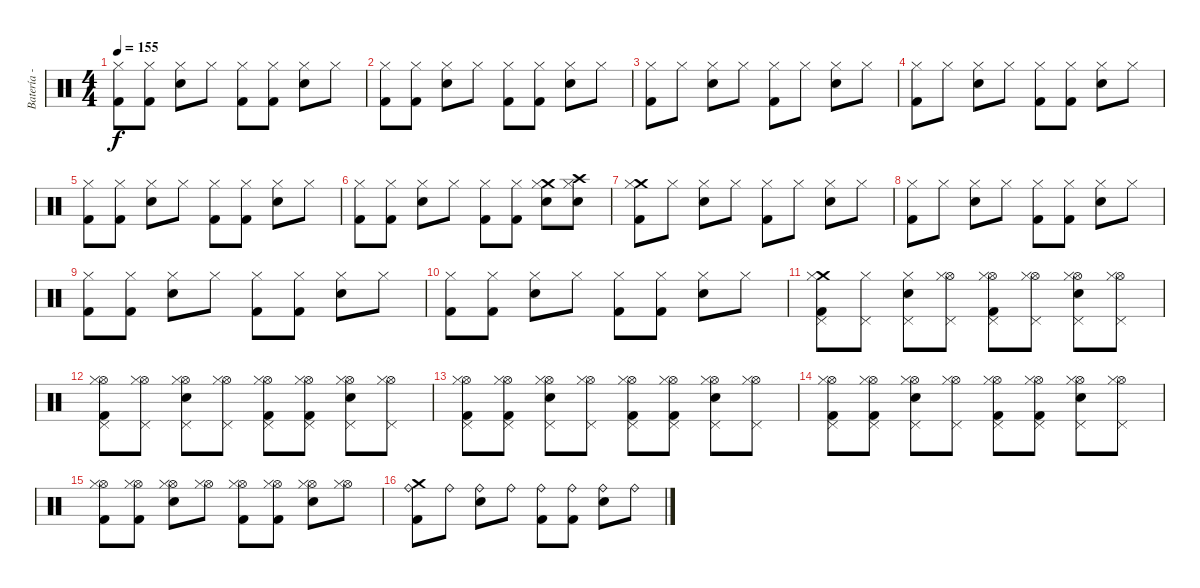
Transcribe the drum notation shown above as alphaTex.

\track ("Batería - Edu" "Batería - ") {instrument percussion}
\staff {score}
\articulation defaults
\ts (4 4)
\tempo 155
\clef neutral
\ks c
("Kick (hit) 2" "Hi-Hat (closed)").8{dy f} ("Kick (hit) 2" "Hi-Hat (closed)").8 ("Electric Snare (hit)" "Hi-Hat (closed)").8 "Hi-Hat (closed)".8 ("Kick (hit) 2" "Hi-Hat (closed)").8 ("Kick (hit) 2" "Hi-Hat (closed)").8 ("Electric Snare (hit)" "Hi-Hat (closed)").8 "Hi-Hat (closed)".8 |
("Kick (hit) 2" "Hi-Hat (closed)").8 ("Kick (hit) 2" "Hi-Hat (closed)").8 ("Electric Snare (hit)" "Hi-Hat (closed)").8 "Hi-Hat (closed)".8 ("Kick (hit) 2" "Hi-Hat (closed)").8 ("Kick (hit) 2" "Hi-Hat (closed)").8 ("Electric Snare (hit)" "Hi-Hat (closed)").8 "Hi-Hat (closed)".8 |
("Kick (hit) 2" "Hi-Hat (closed)").8 "Hi-Hat (closed)".8 ("Electric Snare (hit)" "Hi-Hat (closed)").8 "Hi-Hat (closed)".8 ("Kick (hit) 2" "Hi-Hat (closed)").8 "Hi-Hat (closed)".8 ("Electric Snare (hit)" "Hi-Hat (closed)").8 "Hi-Hat (closed)".8 |
("Kick (hit) 2" "Hi-Hat (closed)").8 "Hi-Hat (closed)".8 ("Electric Snare (hit)" "Hi-Hat (closed)").8 "Hi-Hat (closed)".8 ("Kick (hit) 2" "Hi-Hat (closed)").8 ("Kick (hit) 2" "Hi-Hat (closed)").8 ("Electric Snare (hit)" "Hi-Hat (closed)").8 "Hi-Hat (closed)".8 |
("Kick (hit) 2" "Hi-Hat (closed)").8 ("Kick (hit) 2" "Hi-Hat (closed)").8 ("Electric Snare (hit)" "Hi-Hat (closed)").8 "Hi-Hat (closed)".8 ("Kick (hit) 2" "Hi-Hat (closed)").8 ("Kick (hit) 2" "Hi-Hat (closed)").8 ("Electric Snare (hit)" "Hi-Hat (closed)").8 "Hi-Hat (closed)".8 |
("Kick (hit) 2" "Hi-Hat (closed)").8 ("Kick (hit) 2" "Hi-Hat (closed)").8 ("Electric Snare (hit)" "Hi-Hat (closed)").8 "Hi-Hat (closed)".8 ("Kick (hit) 2" "Hi-Hat (closed)").8 ("Kick (hit) 2" "Hi-Hat (closed)").8 ("Crash medium (hit)" "Electric Snare (hit)" "Hi-Hat (closed)").8 ("Crash high (hit)" "Electric Snare (hit)" "Hi-Hat (closed)").8 |
("Crash medium (hit)" "Kick (hit) 2" "Hi-Hat (closed)").8 "Hi-Hat (closed)".8 ("Electric Snare (hit)" "Hi-Hat (closed)").8 "Hi-Hat (closed)".8 ("Kick (hit) 2" "Hi-Hat (closed)").8 "Hi-Hat (closed)".8 ("Electric Snare (hit)" "Hi-Hat (closed)").8 "Hi-Hat (closed)".8 |
("Kick (hit) 2" "Hi-Hat (closed)").8 "Hi-Hat (closed)".8 ("Electric Snare (hit)" "Hi-Hat (closed)").8 "Hi-Hat (closed)".8 ("Kick (hit) 2" "Hi-Hat (closed)").8 ("Kick (hit) 2" "Hi-Hat (closed)").8 ("Electric Snare (hit)" "Hi-Hat (closed)").8 "Hi-Hat (closed)".8 |
("Kick (hit) 2" "Hi-Hat (closed)").8 ("Kick (hit) 2" "Hi-Hat (closed)").8 ("Electric Snare (hit)" "Hi-Hat (closed)").8 "Hi-Hat (closed)".8 ("Kick (hit) 2" "Hi-Hat (closed)").8 ("Kick (hit) 2" "Hi-Hat (closed)").8 ("Electric Snare (hit)" "Hi-Hat (closed)").8 "Hi-Hat (closed)".8 |
("Kick (hit) 2" "Hi-Hat (closed)").8 ("Kick (hit) 2" "Hi-Hat (closed)").8 ("Electric Snare (hit)" "Hi-Hat (closed)").8 "Hi-Hat (closed)".8 ("Kick (hit) 2" "Hi-Hat (closed)").8 ("Kick (hit) 2" "Hi-Hat (closed)").8 ("Electric Snare (hit)" "Hi-Hat (closed)").8 "Hi-Hat (closed)".8 |
("Pedal Hi-Hat (hit)" "Crash medium (hit)" "Kick (hit) 2" "Hi-Hat (closed)").8 ("Pedal Hi-Hat (hit)" "Hi-Hat (closed)").8 ("Pedal Hi-Hat (hit)" "Electric Snare (hit)" "Hi-Hat (closed)").8 ("Hi-Hat (open)" "Pedal Hi-Hat (hit)" "Hi-Hat (closed)").8 ("Hi-Hat (open)" "Pedal Hi-Hat (hit)" "Kick (hit) 2" "Hi-Hat (closed)").8 ("Hi-Hat (open)" "Pedal Hi-Hat (hit)" "Hi-Hat (closed)").8 ("Hi-Hat (open)" "Pedal Hi-Hat (hit)" "Electric Snare (hit)" "Hi-Hat (closed)").8 ("Hi-Hat (open)" "Pedal Hi-Hat (hit)" "Hi-Hat (closed)").8 |
("Hi-Hat (open)" "Pedal Hi-Hat (hit)" "Kick (hit) 2" "Hi-Hat (closed)").8 ("Hi-Hat (open)" "Pedal Hi-Hat (hit)" "Hi-Hat (closed)").8 ("Hi-Hat (open)" "Pedal Hi-Hat (hit)" "Electric Snare (hit)" "Hi-Hat (closed)").8 ("Hi-Hat (open)" "Pedal Hi-Hat (hit)" "Hi-Hat (closed)").8 ("Hi-Hat (open)" "Pedal Hi-Hat (hit)" "Kick (hit) 2" "Hi-Hat (closed)").8 ("Hi-Hat (open)" "Pedal Hi-Hat (hit)" "Kick (hit) 2" "Hi-Hat (closed)").8 ("Hi-Hat (open)" "Pedal Hi-Hat (hit)" "Electric Snare (hit)" "Hi-Hat (closed)").8 ("Hi-Hat (open)" "Pedal Hi-Hat (hit)" "Hi-Hat (closed)").8 |
("Hi-Hat (open)" "Pedal Hi-Hat (hit)" "Kick (hit) 2" "Hi-Hat (closed)").8 ("Hi-Hat (open)" "Pedal Hi-Hat (hit)" "Kick (hit) 2" "Hi-Hat (closed)").8 ("Hi-Hat (open)" "Pedal Hi-Hat (hit)" "Electric Snare (hit)" "Hi-Hat (closed)").8 ("Hi-Hat (open)" "Pedal Hi-Hat (hit)" "Hi-Hat (closed)").8 ("Hi-Hat (open)" "Pedal Hi-Hat (hit)" "Kick (hit) 2" "Hi-Hat (closed)").8 ("Hi-Hat (open)" "Pedal Hi-Hat (hit)" "Kick (hit) 2" "Hi-Hat (closed)").8 ("Hi-Hat (open)" "Pedal Hi-Hat (hit)" "Electric Snare (hit)" "Hi-Hat (closed)").8 ("Hi-Hat (open)" "Pedal Hi-Hat (hit)" "Hi-Hat (closed)").8 |
("Hi-Hat (open)" "Pedal Hi-Hat (hit)" "Kick (hit) 2" "Hi-Hat (closed)").8 ("Hi-Hat (open)" "Pedal Hi-Hat (hit)" "Kick (hit) 2" "Hi-Hat (closed)").8 ("Hi-Hat (open)" "Pedal Hi-Hat (hit)" "Electric Snare (hit)" "Hi-Hat (closed)").8 ("Hi-Hat (open)" "Pedal Hi-Hat (hit)" "Hi-Hat (closed)").8 ("Hi-Hat (open)" "Pedal Hi-Hat (hit)" "Kick (hit) 2" "Hi-Hat (closed)").8 ("Hi-Hat (open)" "Pedal Hi-Hat (hit)" "Kick (hit) 2" "Hi-Hat (closed)").8 ("Hi-Hat (open)" "Pedal Hi-Hat (hit)" "Electric Snare (hit)" "Hi-Hat (closed)").8 ("Hi-Hat (open)" "Pedal Hi-Hat (hit)" "Hi-Hat (closed)").8 |
("Hi-Hat (open)" "Hi-Hat (closed)" "Kick (hit) 2").8 ("Hi-Hat (open)" "Hi-Hat (closed)" "Kick (hit) 2").8 ("Hi-Hat (open)" "Hi-Hat (closed)" "Electric Snare (hit)").8 ("Hi-Hat (open)" "Hi-Hat (closed)").8 ("Hi-Hat (open)" "Hi-Hat (closed)" "Kick (hit) 2").8 ("Hi-Hat (open)" "Hi-Hat (closed)" "Kick (hit) 2").8 ("Hi-Hat (open)" "Hi-Hat (closed)" "Electric Snare (hit)").8 ("Hi-Hat (open)" "Hi-Hat (closed)").8 |
("Ride (bell)" "Crash medium (hit)" "Kick (hit) 2").8 "Ride (bell)".8 ("Ride (bell)" "Electric Snare (hit)").8 "Ride (bell)".8 ("Ride (bell)" "Kick (hit) 2").8 ("Ride (bell)" "Kick (hit) 2").8 ("Ride (bell)" "Electric Snare (hit)").8 "Ride (bell)".8
